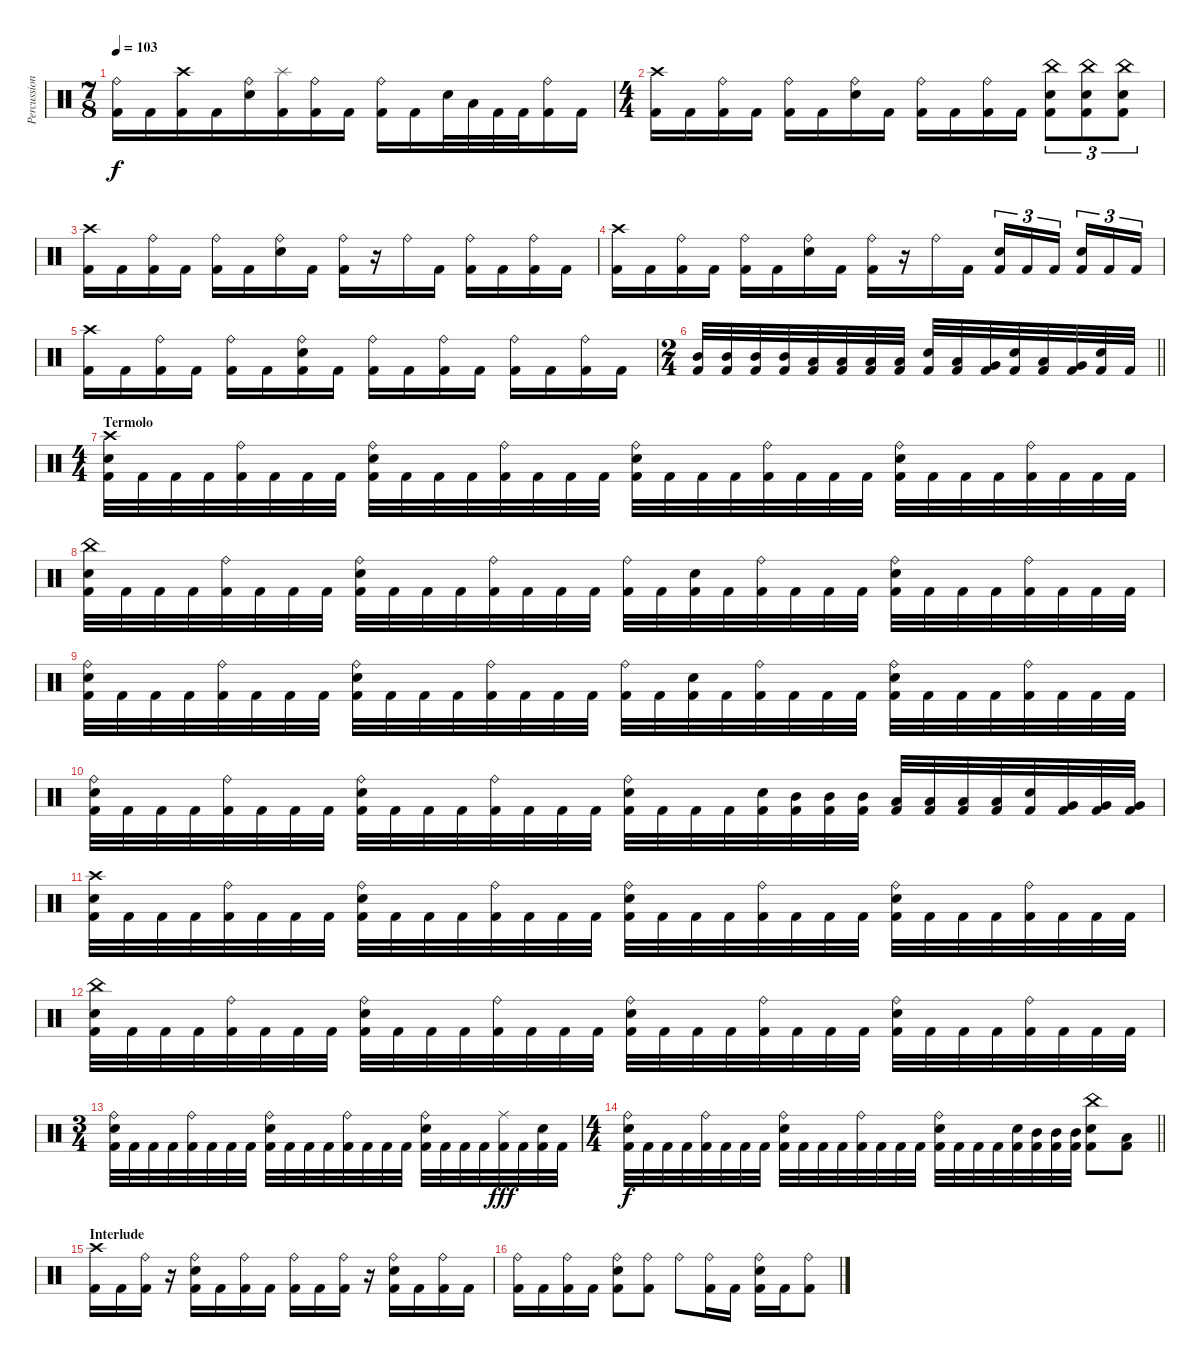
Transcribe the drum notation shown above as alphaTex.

\track ("Percussion" "Percussion") {instrument percussion}
\staff {score}
\articulation defaults
\ts (7 8)
\tempo 103
\clef neutral
\ks c
("Ride (bell)" "Kick (hit) 2").16{dy f} "Kick (hit) 2".16 ("Crash high (hit)" "Kick (hit) 2").16 "Kick (hit) 2".16 ("Ride (bell)" "Electric Snare (hit)").16 ("Splash (hit)" "Kick (hit) 2").16 ("Ride (bell)" "Kick (hit) 2").16 "Kick (hit) 2".16 ("Ride (bell)" "Kick (hit) 2").16 "Kick (hit) 2".16 "Electric Snare (hit)".32 "Low Tom (hit)".32 "Kick (hit) 2".32 "Kick (hit) 2".32 ("Ride (bell)" "Kick (hit) 2").16 "Kick (hit) 2".16 |
\ts (4 4)
("Crash high (hit)" "Kick (hit) 2").16 "Kick (hit) 2".16 ("Ride (bell)" "Kick (hit) 2").16 "Kick (hit) 2".16 ("Ride (bell)" "Kick (hit) 2").16 "Kick (hit) 2".16 ("Ride (bell)" "Electric Snare (hit)").16 "Kick (hit) 2".16 ("Ride (bell)" "Kick (hit) 2").16 "Kick (hit) 2".16 ("Ride (bell)" "Kick (hit) 2").16 "Kick (hit) 2".16 ("China (hit)" "Electric Snare (hit)" "Kick (hit) 2").8{tu (3 2)} ("China (hit)" "Electric Snare (hit)" "Kick (hit) 2").8{tu (3 2)} ("China (hit)" "Electric Snare (hit)" "Kick (hit) 2").8{tu (3 2)} |
("Crash high (hit)" "Kick (hit) 2").16 "Kick (hit) 2".16 ("Ride (bell)" "Kick (hit) 2").16 "Kick (hit) 2".16 ("Ride (bell)" "Kick (hit) 2").16 "Kick (hit) 2".16 ("Ride (bell)" "Electric Snare (hit)").16 "Kick (hit) 2".16 ("Ride (bell)" "Kick (hit) 2").16 r.16 "Ride (bell)".16 "Kick (hit) 2".16 ("Ride (bell)" "Kick (hit) 2").16 "Kick (hit) 2".16 ("Ride (bell)" "Kick (hit) 2").16 "Kick (hit) 2".16 |
("Crash high (hit)" "Kick (hit) 2").16 "Kick (hit) 2".16 ("Ride (bell)" "Kick (hit) 2").16 "Kick (hit) 2".16 ("Ride (bell)" "Kick (hit) 2").16 "Kick (hit) 2".16 ("Ride (bell)" "Electric Snare (hit)").16 "Kick (hit) 2".16 ("Ride (bell)" "Kick (hit) 2").16 r.16 "Ride (bell)".16 "Kick (hit) 2".16 ("Electric Snare (hit)" "Kick (hit) 2").16{tu (3 2)} "Kick (hit) 2".16{tu (3 2)} "Kick (hit) 2".16{tu (3 2)} ("Electric Snare (hit)" "Kick (hit) 2").16{tu (3 2)} "Kick (hit) 2".16{tu (3 2)} "Kick (hit) 2".16{tu (3 2)} |
("Crash high (hit)" "Kick (hit) 2").16 "Kick (hit) 2".16 ("Ride (bell)" "Kick (hit) 2").16 "Kick (hit) 2".16 ("Ride (bell)" "Kick (hit) 2").16 "Kick (hit) 2".16 ("Ride (bell)" "Electric Snare (hit)" "Kick (hit) 2").16 "Kick (hit) 2".16 ("Ride (bell)" "Kick (hit) 2").16 "Kick (hit) 2".16 ("Ride (bell)" "Kick (hit) 2").16 "Kick (hit) 2".16 ("Ride (bell)" "Kick (hit) 2").16 "Kick (hit) 2".16 ("Ride (bell)" "Kick (hit) 2").16 "Kick (hit) 2".16 |
\ts (2 4)
\barLineRight lightlight
("Mid Tom (hit)" "Kick (hit) 2").32 ("Mid Tom (hit)" "Kick (hit) 2").32 ("Mid Tom (hit)" "Kick (hit) 2").32 ("Mid Tom (hit)" "Kick (hit) 2").32 ("Low Tom (hit)" "Kick (hit) 2").32 ("Low Tom (hit)" "Kick (hit) 2").32 ("Low Tom (hit)" "Kick (hit) 2").32 ("Low Tom (hit)" "Kick (hit) 2").32 ("Electric Snare (hit)" "Kick (hit) 2").32 ("Low Tom (hit)" "Kick (hit) 2").32 ("Very Low Tom (hit)" "Kick (hit) 2").32 ("Electric Snare (hit)" "Kick (hit) 2").32 ("Low Tom (hit)" "Kick (hit) 2").32 ("Very Low Tom (hit)" "Kick (hit) 2").32 ("Electric Snare (hit)" "Kick (hit) 2").32 "Kick (hit) 2".32 |
\ts (4 4)
\section ("" "Termolo")
("Crash high (hit)" "Electric Snare (hit)" "Kick (hit) 2").32 "Kick (hit) 2".32 "Kick (hit) 2".32 "Kick (hit) 2".32 ("Ride (bell)" "Kick (hit) 2").32 "Kick (hit) 2".32 "Kick (hit) 2".32 "Kick (hit) 2".32 ("Ride (bell)" "Electric Snare (hit)" "Kick (hit) 2").32 "Kick (hit) 2".32 "Kick (hit) 2".32 "Kick (hit) 2".32 ("Ride (bell)" "Kick (hit) 2").32 "Kick (hit) 2".32 "Kick (hit) 2".32 "Kick (hit) 2".32 ("Ride (bell)" "Electric Snare (hit)" "Kick (hit) 2").32 "Kick (hit) 2".32 "Kick (hit) 2".32 "Kick (hit) 2".32 ("Ride (bell)" "Kick (hit) 2").32 "Kick (hit) 2".32 "Kick (hit) 2".32 "Kick (hit) 2".32 ("Ride (bell)" "Electric Snare (hit)" "Kick (hit) 2").32 "Kick (hit) 2".32 "Kick (hit) 2".32 "Kick (hit) 2".32 ("Ride (bell)" "Kick (hit) 2").32 "Kick (hit) 2".32 "Kick (hit) 2".32 "Kick (hit) 2".32 |
("China (hit)" "Electric Snare (hit)" "Kick (hit) 2").32 "Kick (hit) 2".32 "Kick (hit) 2".32 "Kick (hit) 2".32 ("Ride (bell)" "Kick (hit) 2").32 "Kick (hit) 2".32 "Kick (hit) 2".32 "Kick (hit) 2".32 ("Ride (bell)" "Electric Snare (hit)" "Kick (hit) 2").32 "Kick (hit) 2".32 "Kick (hit) 2".32 "Kick (hit) 2".32 ("Ride (bell)" "Kick (hit) 2").32 "Kick (hit) 2".32 "Kick (hit) 2".32 "Kick (hit) 2".32 ("Ride (bell)" "Kick (hit) 2").32 "Kick (hit) 2".32 ("Electric Snare (hit)" "Kick (hit) 2").32 "Kick (hit) 2".32 ("Ride (bell)" "Kick (hit) 2").32 "Kick (hit) 2".32 "Kick (hit) 2".32 "Kick (hit) 2".32 ("Ride (bell)" "Electric Snare (hit)" "Kick (hit) 2").32 "Kick (hit) 2".32 "Kick (hit) 2".32 "Kick (hit) 2".32 ("Ride (bell)" "Kick (hit) 2").32 "Kick (hit) 2".32 "Kick (hit) 2".32 "Kick (hit) 2".32 |
("Ride (bell)" "Electric Snare (hit)" "Kick (hit) 2").32 "Kick (hit) 2".32 "Kick (hit) 2".32 "Kick (hit) 2".32 ("Ride (bell)" "Kick (hit) 2").32 "Kick (hit) 2".32 "Kick (hit) 2".32 "Kick (hit) 2".32 ("Ride (bell)" "Electric Snare (hit)" "Kick (hit) 2").32 "Kick (hit) 2".32 "Kick (hit) 2".32 "Kick (hit) 2".32 ("Ride (bell)" "Kick (hit) 2").32 "Kick (hit) 2".32 "Kick (hit) 2".32 "Kick (hit) 2".32 ("Ride (bell)" "Kick (hit) 2").32 "Kick (hit) 2".32 ("Electric Snare (hit)" "Kick (hit) 2").32 "Kick (hit) 2".32 ("Ride (bell)" "Kick (hit) 2").32 "Kick (hit) 2".32 "Kick (hit) 2".32 "Kick (hit) 2".32 ("Ride (bell)" "Electric Snare (hit)" "Kick (hit) 2").32 "Kick (hit) 2".32 "Kick (hit) 2".32 "Kick (hit) 2".32 ("Ride (bell)" "Kick (hit) 2").32 "Kick (hit) 2".32 "Kick (hit) 2".32 "Kick (hit) 2".32 |
("Ride (bell)" "Electric Snare (hit)" "Kick (hit) 2").32 "Kick (hit) 2".32 "Kick (hit) 2".32 "Kick (hit) 2".32 ("Ride (bell)" "Kick (hit) 2").32 "Kick (hit) 2".32 "Kick (hit) 2".32 "Kick (hit) 2".32 ("Ride (bell)" "Electric Snare (hit)" "Kick (hit) 2").32 "Kick (hit) 2".32 "Kick (hit) 2".32 "Kick (hit) 2".32 ("Ride (bell)" "Kick (hit) 2").32 "Kick (hit) 2".32 "Kick (hit) 2".32 "Kick (hit) 2".32 ("Ride (bell)" "Electric Snare (hit)" "Kick (hit) 2").32 "Kick (hit) 2".32 "Kick (hit) 2".32 "Kick (hit) 2".32 ("Electric Snare (hit)" "Kick (hit) 2").32 ("Mid Tom (hit)" "Kick (hit) 2").32 ("Mid Tom (hit)" "Kick (hit) 2").32 ("Mid Tom (hit)" "Kick (hit) 2").32 ("Low Tom (hit)" "Kick (hit) 2").32 ("Low Tom (hit)" "Kick (hit) 2").32 ("Low Tom (hit)" "Kick (hit) 2").32 ("Low Tom (hit)" "Kick (hit) 2").32 ("Electric Snare (hit)" "Kick (hit) 2").32 ("Very Low Tom (hit)" "Kick (hit) 2").32 ("Very Low Tom (hit)" "Kick (hit) 2").32 ("Very Low Tom (hit)" "Kick (hit) 2").32 |
("Crash high (hit)" "Electric Snare (hit)" "Kick (hit) 2").32 "Kick (hit) 2".32 "Kick (hit) 2".32 "Kick (hit) 2".32 ("Ride (bell)" "Kick (hit) 2").32 "Kick (hit) 2".32 "Kick (hit) 2".32 "Kick (hit) 2".32 ("Ride (bell)" "Electric Snare (hit)" "Kick (hit) 2").32 "Kick (hit) 2".32 "Kick (hit) 2".32 "Kick (hit) 2".32 ("Ride (bell)" "Kick (hit) 2").32 "Kick (hit) 2".32 "Kick (hit) 2".32 "Kick (hit) 2".32 ("Ride (bell)" "Electric Snare (hit)" "Kick (hit) 2").32 "Kick (hit) 2".32 "Kick (hit) 2".32 "Kick (hit) 2".32 ("Ride (bell)" "Kick (hit) 2").32 "Kick (hit) 2".32 "Kick (hit) 2".32 "Kick (hit) 2".32 ("Ride (bell)" "Electric Snare (hit)" "Kick (hit) 2").32 "Kick (hit) 2".32 "Kick (hit) 2".32 "Kick (hit) 2".32 ("Ride (bell)" "Kick (hit) 2").32 "Kick (hit) 2".32 "Kick (hit) 2".32 "Kick (hit) 2".32 |
("China (hit)" "Electric Snare (hit)" "Kick (hit) 2").32 "Kick (hit) 2".32 "Kick (hit) 2".32 "Kick (hit) 2".32 ("Ride (bell)" "Kick (hit) 2").32 "Kick (hit) 2".32 "Kick (hit) 2".32 "Kick (hit) 2".32 ("Ride (bell)" "Electric Snare (hit)" "Kick (hit) 2").32 "Kick (hit) 2".32 "Kick (hit) 2".32 "Kick (hit) 2".32 ("Ride (bell)" "Kick (hit) 2").32 "Kick (hit) 2".32 "Kick (hit) 2".32 "Kick (hit) 2".32 ("Ride (bell)" "Electric Snare (hit)" "Kick (hit) 2").32 "Kick (hit) 2".32 "Kick (hit) 2".32 "Kick (hit) 2".32 ("Ride (bell)" "Kick (hit) 2").32 "Kick (hit) 2".32 "Kick (hit) 2".32 "Kick (hit) 2".32 ("Ride (bell)" "Electric Snare (hit)" "Kick (hit) 2").32 "Kick (hit) 2".32 "Kick (hit) 2".32 "Kick (hit) 2".32 ("Ride (bell)" "Kick (hit) 2").32 "Kick (hit) 2".32 "Kick (hit) 2".32 "Kick (hit) 2".32 |
\ts (3 4)
("Ride (bell)" "Electric Snare (hit)" "Kick (hit) 2").32 "Kick (hit) 2".32 "Kick (hit) 2".32 "Kick (hit) 2".32 ("Ride (bell)" "Kick (hit) 2").32 "Kick (hit) 2".32 "Kick (hit) 2".32 "Kick (hit) 2".32 ("Ride (bell)" "Electric Snare (hit)" "Kick (hit) 2").32 "Kick (hit) 2".32 "Kick (hit) 2".32 "Kick (hit) 2".32 ("Ride (bell)" "Kick (hit) 2").32 "Kick (hit) 2".32 "Kick (hit) 2".32 "Kick (hit) 2".32 ("Ride (bell)" "Electric Snare (hit)" "Kick (hit) 2").32 "Kick (hit) 2".32 "Kick (hit) 2".32 "Kick (hit) 2".32 ("Ride (middle)" "Kick (hit) 2").32{dy fff} "Kick (hit) 2".32 ("Electric Snare (hit)" "Kick (hit) 2").32 "Kick (hit) 2".32 |
\ts (4 4)
\barLineRight lightlight
("Ride (bell)" "Electric Snare (hit)" "Kick (hit) 2").32{dy f} "Kick (hit) 2".32 "Kick (hit) 2".32 "Kick (hit) 2".32 ("Ride (bell)" "Kick (hit) 2").32 "Kick (hit) 2".32 "Kick (hit) 2".32 "Kick (hit) 2".32 ("Ride (bell)" "Electric Snare (hit)" "Kick (hit) 2").32 "Kick (hit) 2".32 "Kick (hit) 2".32 "Kick (hit) 2".32 ("Ride (bell)" "Kick (hit) 2").32 "Kick (hit) 2".32 "Kick (hit) 2".32 "Kick (hit) 2".32 ("Ride (bell)" "Electric Snare (hit)" "Kick (hit) 2").32 "Kick (hit) 2".32 "Kick (hit) 2".32 "Kick (hit) 2".32 ("Electric Snare (hit)" "Kick (hit) 2").32 ("Mid Tom (hit)" "Kick (hit) 2").32 ("Mid Tom (hit)" "Kick (hit) 2").32 ("Mid Tom (hit)" "Kick (hit) 2").32 ("China (hit)" "Electric Snare (hit)" "Kick (hit) 2").8 ("Low Tom (hit)" "Kick (hit) 2").8 |
\section ("" "Interlude")
("Crash high (hit)" "Kick (hit) 2").16 "Kick (hit) 2".16 ("Ride (bell)" "Kick (hit) 2").16 r.16 ("Ride (bell)" "Electric Snare (hit)" "Kick (hit) 2").16 "Kick (hit) 2".16 ("Ride (bell)" "Kick (hit) 2").16 "Kick (hit) 2".16 ("Ride (bell)" "Kick (hit) 2").16 "Kick (hit) 2".16 ("Ride (bell)" "Kick (hit) 2").16 r.16 ("Ride (bell)" "Electric Snare (hit)" "Kick (hit) 2").16 "Kick (hit) 2".16 ("Ride (bell)" "Kick (hit) 2").16 "Kick (hit) 2".16 |
("Ride (bell)" "Kick (hit) 2").16 "Kick (hit) 2".16 ("Ride (bell)" "Kick (hit) 2").16 "Kick (hit) 2".16 ("Ride (bell)" "Electric Snare (hit)" "Kick (hit) 2").8 ("Ride (bell)" "Kick (hit) 2").8 "Ride (bell)".8 ("Ride (bell)" "Kick (hit) 2").16 "Kick (hit) 2".16 ("Ride (bell)" "Electric Snare (hit)" "Kick (hit) 2").16 "Kick (hit) 2".16 ("Ride (bell)" "Kick (hit) 2").8
